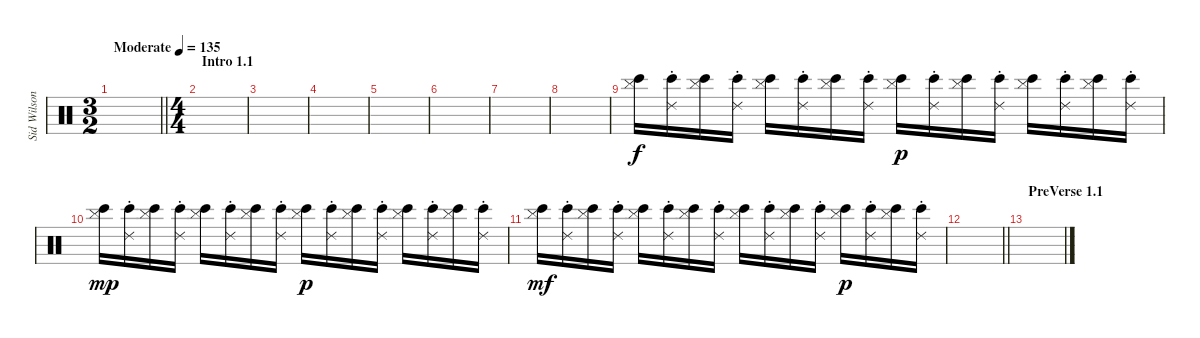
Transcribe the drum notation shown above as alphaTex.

\track ("Sid Wilson" "Sid Wilson") {instrument percussion}
\staff {score}
\articulation defaults
\ts (3 2)
\tempo (135 "Moderate")
\clef neutral
\barLineRight lightlight
\ks c
|
\ts (4 4)
\section ("" "Intro 1.1")
|
|
|
|
|
|
|
("Bongo High (hit)" "Cymbal (hit)").16 ("Bongo High (hit)" "Ride (choke) 2").16 ("Bongo High (hit)" "Cymbal (hit)").16 ("Bongo High (hit)" "Ride (choke) 2").16 ("Bongo High (hit)" "Cymbal (hit)").16 ("Bongo High (hit)" "Ride (choke) 2").16 ("Bongo High (hit)" "Cymbal (hit)").16 ("Bongo High (hit)" "Ride (choke) 2").16 ("Bongo High (hit)" "Cymbal (hit)").16{dy p} ("Bongo High (hit)" "Ride (choke) 2").16 ("Bongo High (hit)" "Cymbal (hit)").16 ("Bongo High (hit)" "Ride (choke) 2").16 ("Bongo High (hit)" "Cymbal (hit)").16 ("Bongo High (hit)" "Ride (choke) 2").16 ("Bongo High (hit)" "Cymbal (hit)").16 ("Bongo High (hit)" "Ride (choke) 2").16 |
("Bongo High (hit)" "Cymbal (hit)").16{dy mp} ("Bongo High (hit)" "Ride (choke) 2").16 ("Bongo High (hit)" "Cymbal (hit)").16 ("Bongo High (hit)" "Ride (choke) 2").16 ("Bongo High (hit)" "Cymbal (hit)").16 ("Bongo High (hit)" "Ride (choke) 2").16 ("Bongo High (hit)" "Cymbal (hit)").16 ("Bongo High (hit)" "Ride (choke) 2").16 ("Bongo High (hit)" "Cymbal (hit)").16{dy p} ("Bongo High (hit)" "Ride (choke) 2").16 ("Bongo High (hit)" "Cymbal (hit)").16 ("Bongo High (hit)" "Ride (choke) 2").16 ("Bongo High (hit)" "Cymbal (hit)").16 ("Bongo High (hit)" "Ride (choke) 2").16 ("Bongo High (hit)" "Cymbal (hit)").16 ("Bongo High (hit)" "Ride (choke) 2").16 |
("Bongo High (hit)" "Cymbal (hit)").16{dy mf} ("Bongo High (hit)" "Ride (choke) 2").16 ("Bongo High (hit)" "Cymbal (hit)").16 ("Bongo High (hit)" "Ride (choke) 2").16 ("Bongo High (hit)" "Cymbal (hit)").16 ("Bongo High (hit)" "Ride (choke) 2").16 ("Bongo High (hit)" "Cymbal (hit)").16 ("Bongo High (hit)" "Ride (choke) 2").16 ("Bongo High (hit)" "Cymbal (hit)").16 ("Bongo High (hit)" "Ride (choke) 2").16 ("Bongo High (hit)" "Cymbal (hit)").16 ("Bongo High (hit)" "Ride (choke) 2").16 ("Bongo High (hit)" "Cymbal (hit)").16{dy p} ("Bongo High (hit)" "Ride (choke) 2").16 ("Bongo High (hit)" "Cymbal (hit)").16 ("Bongo High (hit)" "Ride (choke) 2").16 |
\barLineRight lightlight
|
\section ("" "PreVerse 1.1")
